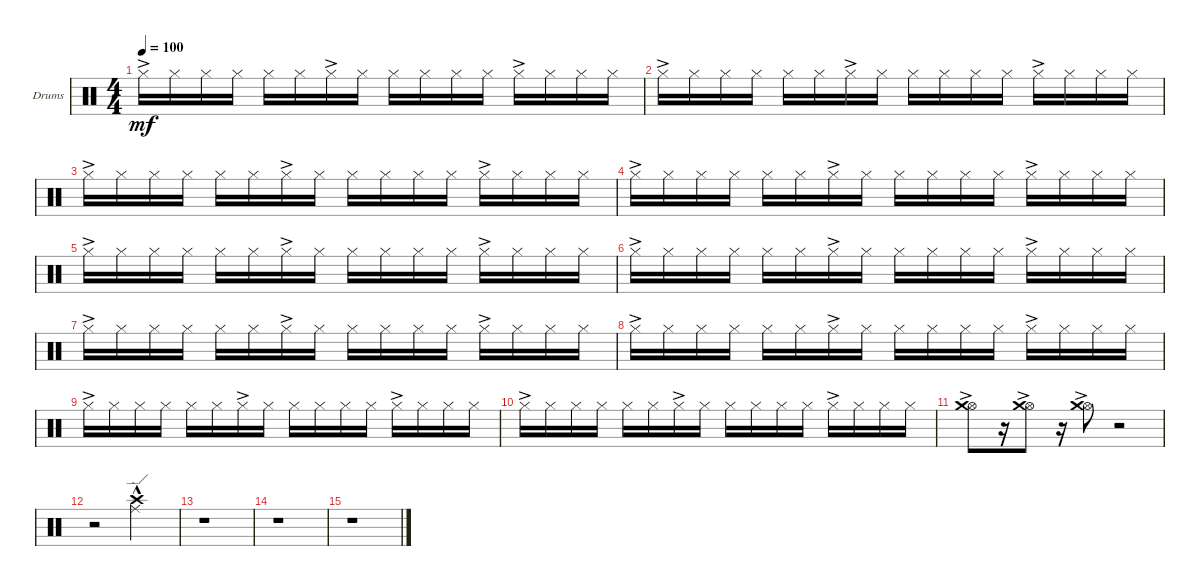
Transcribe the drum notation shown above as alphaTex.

\defaultSystemsLayout 4
\bracketExtendMode groupsimilarinstruments
\firstSystemTrackNameOrientation horizontal
\otherSystemsTrackNameOrientation horizontal
\track ("Drumkit 2" "Drums") {instrument percussion}
\staff {score}
\articulation defaults
\ts (4 4)
\tempo 100
\clef neutral
\ks c "Hi-Hat (closed)"{ac}.16{dy mf} "Hi-Hat (closed)".16 "Hi-Hat (closed)".16 "Hi-Hat (closed)".16 "Hi-Hat (closed)".16 "Hi-Hat (closed)".16 "Hi-Hat (closed)"{ac}.16 "Hi-Hat (closed)".16 "Hi-Hat (closed)".16 "Hi-Hat (closed)".16 "Hi-Hat (closed)".16 "Hi-Hat (closed)".16 "Hi-Hat (closed)"{ac}.16 "Hi-Hat (closed)".16 "Hi-Hat (closed)".16 "Hi-Hat (closed)".16
|
"Hi-Hat (closed)"{ac}.16 "Hi-Hat (closed)".16 "Hi-Hat (closed)".16 "Hi-Hat (closed)".16 "Hi-Hat (closed)".16 "Hi-Hat (closed)".16 "Hi-Hat (closed)"{ac}.16 "Hi-Hat (closed)".16 "Hi-Hat (closed)".16 "Hi-Hat (closed)".16 "Hi-Hat (closed)".16 "Hi-Hat (closed)".16 "Hi-Hat (closed)"{ac}.16 "Hi-Hat (closed)".16 "Hi-Hat (closed)".16 "Hi-Hat (closed)".16 |
"Hi-Hat (closed)"{ac}.16 "Hi-Hat (closed)".16 "Hi-Hat (closed)".16 "Hi-Hat (closed)".16 "Hi-Hat (closed)".16 "Hi-Hat (closed)".16 "Hi-Hat (closed)"{ac}.16 "Hi-Hat (closed)".16 "Hi-Hat (closed)".16 "Hi-Hat (closed)".16 "Hi-Hat (closed)".16 "Hi-Hat (closed)".16 "Hi-Hat (closed)"{ac}.16 "Hi-Hat (closed)".16 "Hi-Hat (closed)".16 "Hi-Hat (closed)".16 |
"Hi-Hat (closed)"{ac}.16 "Hi-Hat (closed)".16 "Hi-Hat (closed)".16 "Hi-Hat (closed)".16 "Hi-Hat (closed)".16 "Hi-Hat (closed)".16 "Hi-Hat (closed)"{ac}.16 "Hi-Hat (closed)".16 "Hi-Hat (closed)".16 "Hi-Hat (closed)".16 "Hi-Hat (closed)".16 "Hi-Hat (closed)".16 "Hi-Hat (closed)"{ac}.16 "Hi-Hat (closed)".16 "Hi-Hat (closed)".16 "Hi-Hat (closed)".16 |
"Hi-Hat (closed)"{ac}.16 "Hi-Hat (closed)".16 "Hi-Hat (closed)".16 "Hi-Hat (closed)".16 "Hi-Hat (closed)".16 "Hi-Hat (closed)".16 "Hi-Hat (closed)"{ac}.16 "Hi-Hat (closed)".16 "Hi-Hat (closed)".16 "Hi-Hat (closed)".16 "Hi-Hat (closed)".16 "Hi-Hat (closed)".16 "Hi-Hat (closed)"{ac}.16 "Hi-Hat (closed)".16 "Hi-Hat (closed)".16 "Hi-Hat (closed)".16 |
"Hi-Hat (closed)"{ac}.16 "Hi-Hat (closed)".16 "Hi-Hat (closed)".16 "Hi-Hat (closed)".16 "Hi-Hat (closed)".16 "Hi-Hat (closed)".16 "Hi-Hat (closed)"{ac}.16 "Hi-Hat (closed)".16 "Hi-Hat (closed)".16 "Hi-Hat (closed)".16 "Hi-Hat (closed)".16 "Hi-Hat (closed)".16 "Hi-Hat (closed)"{ac}.16 "Hi-Hat (closed)".16 "Hi-Hat (closed)".16 "Hi-Hat (closed)".16 |
"Hi-Hat (closed)"{ac}.16 "Hi-Hat (closed)".16 "Hi-Hat (closed)".16 "Hi-Hat (closed)".16 "Hi-Hat (closed)".16 "Hi-Hat (closed)".16 "Hi-Hat (closed)"{ac}.16 "Hi-Hat (closed)".16 "Hi-Hat (closed)".16 "Hi-Hat (closed)".16 "Hi-Hat (closed)".16 "Hi-Hat (closed)".16 "Hi-Hat (closed)"{ac}.16 "Hi-Hat (closed)".16 "Hi-Hat (closed)".16 "Hi-Hat (closed)".16 |
"Hi-Hat (closed)"{ac}.16 "Hi-Hat (closed)".16 "Hi-Hat (closed)".16 "Hi-Hat (closed)".16 "Hi-Hat (closed)".16 "Hi-Hat (closed)".16 "Hi-Hat (closed)"{ac}.16 "Hi-Hat (closed)".16 "Hi-Hat (closed)".16 "Hi-Hat (closed)".16 "Hi-Hat (closed)".16 "Hi-Hat (closed)".16 "Hi-Hat (closed)"{ac}.16 "Hi-Hat (closed)".16 "Hi-Hat (closed)".16 "Hi-Hat (closed)".16 |
"Hi-Hat (closed)"{ac}.16 "Hi-Hat (closed)".16 "Hi-Hat (closed)".16 "Hi-Hat (closed)".16 "Hi-Hat (closed)".16 "Hi-Hat (closed)".16 "Hi-Hat (closed)"{ac}.16 "Hi-Hat (closed)".16 "Hi-Hat (closed)".16 "Hi-Hat (closed)".16 "Hi-Hat (closed)".16 "Hi-Hat (closed)".16 "Hi-Hat (closed)"{ac}.16 "Hi-Hat (closed)".16 "Hi-Hat (closed)".16 "Hi-Hat (closed)".16 |
"Hi-Hat (closed)"{ac}.16 "Hi-Hat (closed)".16 "Hi-Hat (closed)".16 "Hi-Hat (closed)".16 "Hi-Hat (closed)".16 "Hi-Hat (closed)".16 "Hi-Hat (closed)"{ac}.16 "Hi-Hat (closed)".16 "Hi-Hat (closed)".16 "Hi-Hat (closed)".16 "Hi-Hat (closed)".16 "Hi-Hat (closed)".16 "Hi-Hat (closed)"{ac}.16 "Hi-Hat (closed)".16 "Hi-Hat (closed)".16 "Hi-Hat (closed)".16 |
("Hi-Hat (open)"{ac} "Crash medium (hit)").8 r.16 ("Hi-Hat (open)"{ac} "Crash medium (hit)").8 r.16 ("Hi-Hat (open)"{ac} "Crash medium (hit)").8 r.2 |
r.2 ("Crash high (hit)"{hac} "Ride (edge)").2 |
r.1 |
r.1 |
r.1
